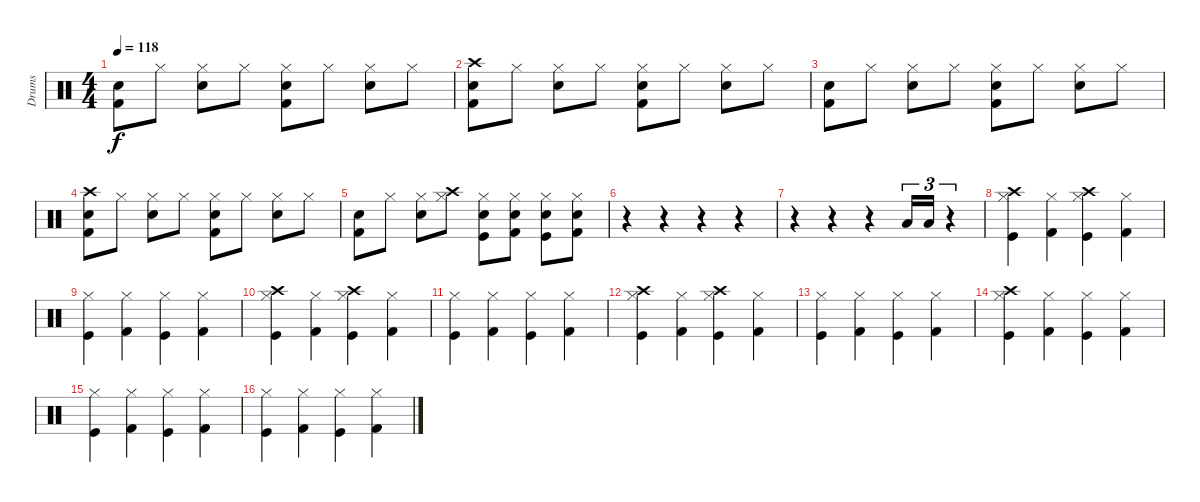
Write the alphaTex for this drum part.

\track ("Drums" "Drums") {instrument percussion}
\staff {score}
\articulation defaults
\ts (4 4)
\tempo 118
\clef neutral
\ks c
("Electric Snare (hit)" "Kick (hit) 2").8{dy f} "Hi-Hat (closed)".8 ("Hi-Hat (closed)" "Electric Snare (hit)").8 "Hi-Hat (closed)".8 ("Hi-Hat (closed)" "Kick (hit) 2" "Electric Snare (hit)").8 "Hi-Hat (closed)".8 ("Hi-Hat (closed)" "Electric Snare (hit)").8 "Hi-Hat (closed)".8 |
("Electric Snare (hit)" "Kick (hit) 2" "Crash high (hit)").8 "Hi-Hat (closed)".8 ("Hi-Hat (closed)" "Electric Snare (hit)").8 "Hi-Hat (closed)".8 ("Hi-Hat (closed)" "Kick (hit) 2" "Electric Snare (hit)").8 "Hi-Hat (closed)".8 ("Hi-Hat (closed)" "Electric Snare (hit)").8 "Hi-Hat (closed)".8 |
("Electric Snare (hit)" "Kick (hit) 2").8 "Hi-Hat (closed)".8 ("Hi-Hat (closed)" "Electric Snare (hit)").8 "Hi-Hat (closed)".8 ("Hi-Hat (closed)" "Kick (hit) 2" "Electric Snare (hit)").8 "Hi-Hat (closed)".8 ("Hi-Hat (closed)" "Electric Snare (hit)").8 "Hi-Hat (closed)".8 |
("Electric Snare (hit)" "Kick (hit) 2" "Crash high (hit)").8 "Hi-Hat (closed)".8 ("Hi-Hat (closed)" "Electric Snare (hit)").8 "Hi-Hat (closed)".8 ("Hi-Hat (closed)" "Kick (hit) 2" "Electric Snare (hit)").8 "Hi-Hat (closed)".8 ("Hi-Hat (closed)" "Electric Snare (hit)").8 "Hi-Hat (closed)".8 |
("Electric Snare (hit)" "Kick (hit) 2").8 "Hi-Hat (closed)".8 ("Hi-Hat (closed)" "Electric Snare (hit)").8 ("Hi-Hat (closed)" "Crash high (hit)").8 ("Electric Snare (hit)" "Kick (hit)" "Hi-Hat (closed)").8 ("Electric Snare (hit)" "Hi-Hat (closed)" "Kick (hit) 2").8 ("Electric Snare (hit)" "Kick (hit)" "Hi-Hat (closed)").8 ("Electric Snare (hit)" "Hi-Hat (closed)" "Kick (hit) 2").8 |
r.4 r.4 r.4 r.4 |
r.4 r.4 r.4 "Low Tom (hit)".16{tu (3 2)} "Low Tom (hit)".16{tu (3 2)} r.4{tu (3 2)} |
("Crash high (hit)" "Kick (hit)" "Hi-Hat (closed)").4 ("Hi-Hat (closed)" "Kick (hit) 2").4 ("Crash high (hit)" "Kick (hit)" "Hi-Hat (closed)").4 ("Hi-Hat (closed)" "Kick (hit) 2").4 |
("Kick (hit)" "Hi-Hat (closed)").4 ("Hi-Hat (closed)" "Kick (hit) 2").4 ("Kick (hit)" "Hi-Hat (closed)").4 ("Hi-Hat (closed)" "Kick (hit) 2").4 |
("Crash high (hit)" "Kick (hit)" "Hi-Hat (closed)").4 ("Hi-Hat (closed)" "Kick (hit) 2").4 ("Crash high (hit)" "Kick (hit)" "Hi-Hat (closed)").4 ("Hi-Hat (closed)" "Kick (hit) 2").4 |
("Kick (hit)" "Hi-Hat (closed)").4 ("Hi-Hat (closed)" "Kick (hit) 2").4 ("Kick (hit)" "Hi-Hat (closed)").4 ("Hi-Hat (closed)" "Kick (hit) 2").4 |
("Crash high (hit)" "Kick (hit)" "Hi-Hat (closed)").4 ("Hi-Hat (closed)" "Kick (hit) 2").4 ("Crash high (hit)" "Kick (hit)" "Hi-Hat (closed)").4 ("Hi-Hat (closed)" "Kick (hit) 2").4 |
("Kick (hit)" "Hi-Hat (closed)").4 ("Hi-Hat (closed)" "Kick (hit) 2").4 ("Kick (hit)" "Hi-Hat (closed)").4 ("Hi-Hat (closed)" "Kick (hit) 2").4 |
("Crash high (hit)" "Kick (hit)" "Hi-Hat (closed)").4 ("Hi-Hat (closed)" "Kick (hit) 2").4 ("Kick (hit)" "Hi-Hat (closed)").4 ("Hi-Hat (closed)" "Kick (hit) 2").4 |
("Kick (hit)" "Hi-Hat (closed)").4 ("Hi-Hat (closed)" "Kick (hit) 2").4 ("Kick (hit)" "Hi-Hat (closed)").4 ("Hi-Hat (closed)" "Kick (hit) 2").4 |
("Kick (hit)" "Hi-Hat (closed)").4 ("Hi-Hat (closed)" "Kick (hit) 2").4 ("Kick (hit)" "Hi-Hat (closed)").4 ("Hi-Hat (closed)" "Kick (hit) 2").4
